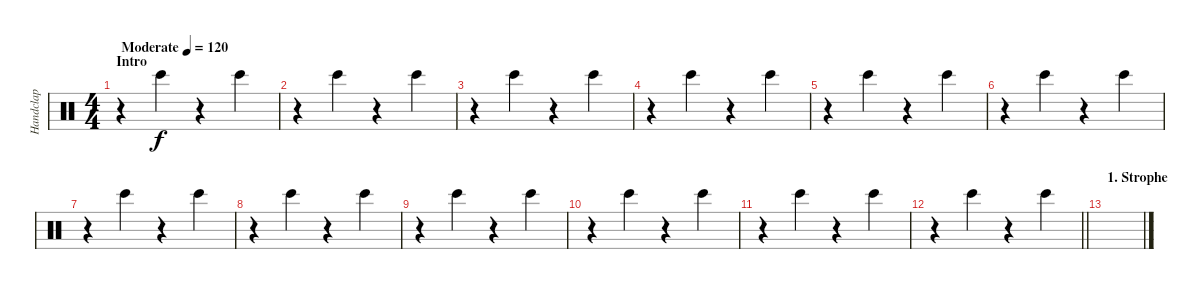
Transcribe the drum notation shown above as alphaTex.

\track ("Handclap" "Handclap") {instrument percussion}
\staff {score}
\articulation defaults
\ts (4 4)
\section ("" "Intro")
\tempo (120 "Moderate")
\clef neutral
\ks c
r.4{dy f} "Bongo High (hit)".4 r.4 "Bongo High (hit)".4 |
r.4 "Bongo High (hit)".4 r.4 "Bongo High (hit)".4 |
r.4 "Bongo High (hit)".4 r.4 "Bongo High (hit)".4 |
r.4 "Bongo High (hit)".4 r.4 "Bongo High (hit)".4 |
r.4 "Bongo High (hit)".4 r.4 "Bongo High (hit)".4 |
r.4 "Bongo High (hit)".4 r.4 "Bongo High (hit)".4 |
r.4 "Bongo High (hit)".4 r.4 "Bongo High (hit)".4 |
r.4 "Bongo High (hit)".4 r.4 "Bongo High (hit)".4 |
r.4 "Bongo High (hit)".4 r.4 "Bongo High (hit)".4 |
r.4 "Bongo High (hit)".4 r.4 "Bongo High (hit)".4 |
r.4 "Bongo High (hit)".4 r.4 "Bongo High (hit)".4 |
\barLineRight lightlight
r.4 "Bongo High (hit)".4 r.4 "Bongo High (hit)".4 |
\section ("" "1. Strophe")
